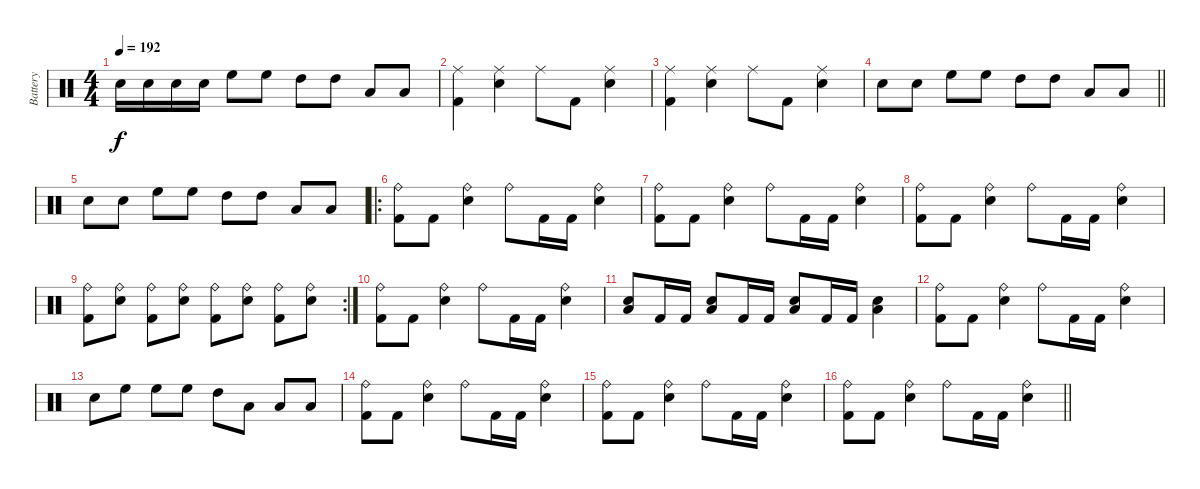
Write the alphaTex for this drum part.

\track ("Battery" "Battery") {instrument percussion}
\staff {score}
\articulation defaults
\ts (4 4)
\tempo 192
\clef neutral
\ks c "Snare (hit) 2".16{dy f} "Snare (hit) 2".16 "Snare (hit) 2".16 "Snare (hit) 2".16 "High Floor Tom (hit)".8 "High Floor Tom (hit)".8 "High Tom (hit)".8 "High Tom (hit)".8 "Low Tom (hit)".8 "Low Tom (hit)".8
|
("Ride (middle)" "Kick (hit) 2").4 ("Ride (middle)" "Snare (hit) 2").4 "Ride (middle)".8 "Kick (hit) 2".8 ("Ride (middle)" "Snare (hit) 2").4 |
("Ride (middle)" "Kick (hit) 2").4 ("Ride (middle)" "Snare (hit) 2").4 "Ride (middle)".8 "Kick (hit) 2".8 ("Ride (middle)" "Snare (hit) 2").4 |
\barLineRight lightlight "Snare (hit) 2".8 "Snare (hit) 2".8 "High Floor Tom (hit)".8 "High Floor Tom (hit)".8 "High Tom (hit)".8 "High Tom (hit)".8 "Low Tom (hit)".8 "Low Tom (hit)".8
|
"Snare (hit) 2".8 "Snare (hit) 2".8 "High Floor Tom (hit)".8 "High Floor Tom (hit)".8 "High Tom (hit)".8 "High Tom (hit)".8 "Low Tom (hit)".8 "Low Tom (hit)".8 |
\ro
("Ride (bell)" "Kick (hit) 2").8 "Kick (hit) 2".8 ("Ride (bell)" "Snare (hit) 2").4 "Ride (bell)".8 "Kick (hit) 2".16 "Kick (hit) 2".16 ("Ride (bell)" "Snare (hit) 2").4 |
("Ride (bell)" "Kick (hit) 2").8 "Kick (hit) 2".8 ("Ride (bell)" "Snare (hit) 2").4 "Ride (bell)".8 "Kick (hit) 2".16 "Kick (hit) 2".16 ("Ride (bell)" "Snare (hit) 2").4 |
("Ride (bell)" "Kick (hit) 2").8 "Kick (hit) 2".8 ("Ride (bell)" "Snare (hit) 2").4 "Ride (bell)".8 "Kick (hit) 2".16 "Kick (hit) 2".16 ("Ride (bell)" "Snare (hit) 2").4 |
\rc 2
("Ride (bell)" "Kick (hit) 2").8 ("Ride (bell)" "Snare (hit) 2").8 ("Ride (bell)" "Kick (hit) 2").8 ("Ride (bell)" "Snare (hit) 2").8 ("Ride (bell)" "Kick (hit) 2").8 ("Ride (bell)" "Snare (hit) 2").8 ("Ride (bell)" "Kick (hit) 2").8 ("Ride (bell)" "Snare (hit) 2").8 |
("Ride (bell)" "Kick (hit) 2").8 "Kick (hit) 2".8 ("Ride (bell)" "Snare (hit) 2").4 "Ride (bell)".8 "Kick (hit) 2".16 "Kick (hit) 2".16 ("Ride (bell)" "Snare (hit) 2").4 |
("Low Tom (hit)" "Snare (hit) 2").8 "Kick (hit) 2".16 "Kick (hit) 2".16 ("Low Tom (hit)" "Snare (hit) 2").8 "Kick (hit) 2".16 "Kick (hit) 2".16 ("Low Tom (hit)" "Snare (hit) 2").8 "Kick (hit) 2".16 "Kick (hit) 2".16 ("Low Tom (hit)" "Snare (hit) 2").4 |
("Ride (bell)" "Kick (hit) 2").8 "Kick (hit) 2".8 ("Ride (bell)" "Snare (hit) 2").4 "Ride (bell)".8 "Kick (hit) 2".16 "Kick (hit) 2".16 ("Ride (bell)" "Snare (hit) 2").4 |
"Snare (hit) 2".8 "High Floor Tom (hit)".8 "High Floor Tom (hit)".8 "High Floor Tom (hit)".8 "High Tom (hit)".8 "Low Tom (hit)".8 "Low Tom (hit)".8 "Low Tom (hit)".8 |
("Ride (bell)" "Kick (hit) 2").8 "Kick (hit) 2".8 ("Ride (bell)" "Snare (hit) 2").4 "Ride (bell)".8 "Kick (hit) 2".16 "Kick (hit) 2".16 ("Ride (bell)" "Snare (hit) 2").4 |
("Ride (bell)" "Kick (hit) 2").8 "Kick (hit) 2".8 ("Ride (bell)" "Snare (hit) 2").4 "Ride (bell)".8 "Kick (hit) 2".16 "Kick (hit) 2".16 ("Ride (bell)" "Snare (hit) 2").4 |
\barLineRight lightlight
("Ride (bell)" "Kick (hit) 2").8 "Kick (hit) 2".8 ("Ride (bell)" "Snare (hit) 2").4 "Ride (bell)".8 "Kick (hit) 2".16 "Kick (hit) 2".16 ("Ride (bell)" "Snare (hit) 2").4
